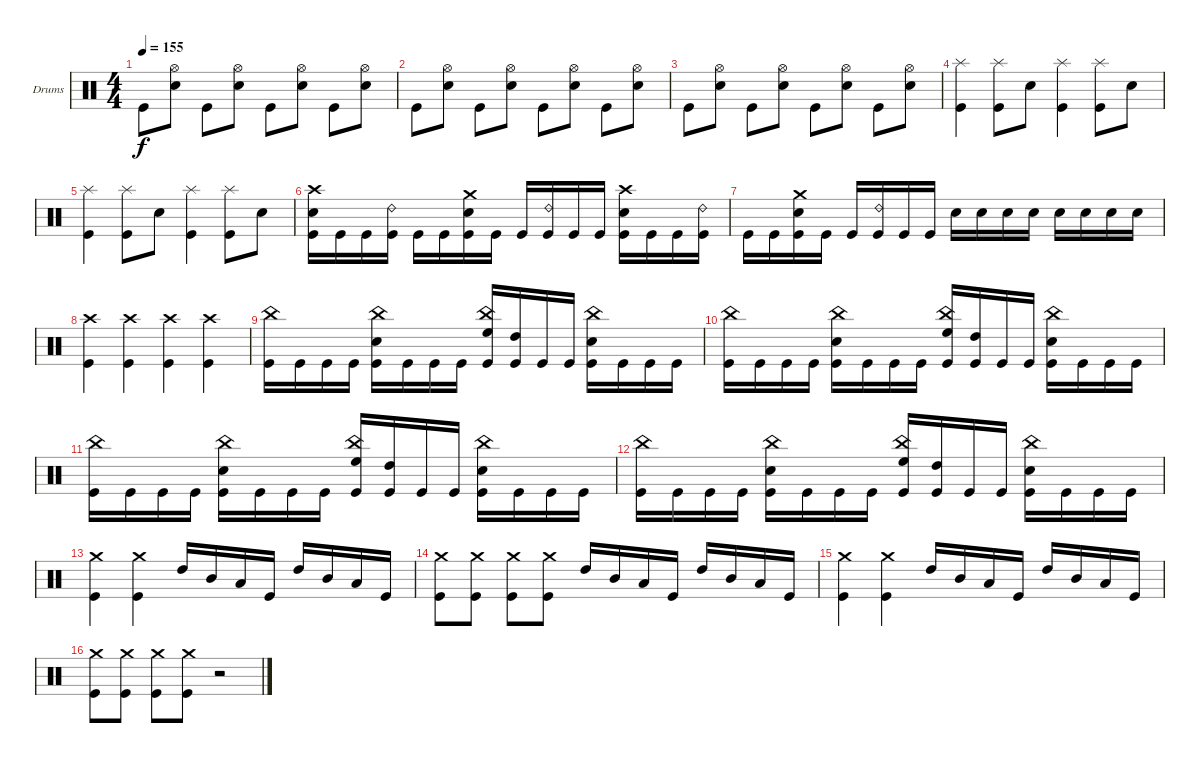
\defaultSystemsLayout 4
\bracketExtendMode groupsimilarinstruments
\firstSystemTrackNameOrientation horizontal
\otherSystemsTrackNameOrientation horizontal
\track ("Drumkit" "Drums") {instrument percussion}
\staff {score}
\articulation defaults
\ts (4 4)
\tempo 155
\clef neutral
\ks c "Kick (hit)".8{dy f}
("Snare (hit) 2" "Hi-Hat (open)").8 "Kick (hit)".8 ("Snare (hit) 2" "Hi-Hat (open)").8 "Kick (hit)".8 ("Snare (hit) 2" "Hi-Hat (open)").8 "Kick (hit)".8 ("Snare (hit) 2" "Hi-Hat (open)").8 |
"Kick (hit)".8 ("Snare (hit) 2" "Hi-Hat (open)").8 "Kick (hit)".8 ("Snare (hit) 2" "Hi-Hat (open)").8 "Kick (hit)".8 ("Snare (hit) 2" "Hi-Hat (open)").8 "Kick (hit)".8 ("Snare (hit) 2" "Hi-Hat (open)").8 |
"Kick (hit)".8 ("Snare (hit) 2" "Hi-Hat (open)").8 "Kick (hit)".8 ("Snare (hit) 2" "Hi-Hat (open)").8 "Kick (hit)".8 ("Snare (hit) 2" "Hi-Hat (open)").8 "Kick (hit)".8 ("Snare (hit) 2" "Hi-Hat (open)").8 |
("Kick (hit)" "Splash (hit)").4 ("Kick (hit)" "Splash (hit)").8 "Snare (hit) 2".8 ("Kick (hit)" "Splash (hit)").4 ("Kick (hit)" "Splash (hit)").8 "Snare (hit) 2".8 |
("Kick (hit)" "Splash (hit)").4 ("Kick (hit)" "Splash (hit)").8 "Snare (hit) 2".8 ("Kick (hit)" "Splash (hit)").4 ("Kick (hit)" "Splash (hit)").8 "Snare (hit) 2".8 |
("Kick (hit)" "Snare (hit) 2" "Crash high (hit)").16 "Kick (hit)".16 "Kick (hit)".16 ("Kick (hit)" "Ride (bell) 2").16 "Kick (hit)".16 "Kick (hit)".16 ("Kick (hit)" "Snare (hit) 2" "Crash medium (hit)").16 "Kick (hit)".16 "Kick (hit)".16 ("Kick (hit)" "Ride (bell) 2").16 "Kick (hit)".16 "Kick (hit)".16 ("Kick (hit)" "Snare (hit) 2" "Crash high (hit)").16 "Kick (hit)".16 "Kick (hit)".16 ("Kick (hit)" "Ride (bell) 2").16 |
"Kick (hit)".16 "Kick (hit)".16 ("Kick (hit)" "Snare (hit) 2" "Crash medium (hit)").16 "Kick (hit)".16 "Kick (hit)".16 ("Kick (hit)" "Ride (bell) 2").16 "Kick (hit)".16 "Kick (hit)".16 "Snare (hit) 2".16 "Snare (hit) 2".16 "Snare (hit) 2".16 "Snare (hit) 2".16 "Snare (hit) 2".16 "Snare (hit) 2".16 "Snare (hit) 2".16 "Snare (hit) 2".16 |
("Kick (hit)" "Crash high (hit)").4 ("Kick (hit)" "Crash high (hit)").4 ("Kick (hit)" "Crash high (hit)").4 ("Kick (hit)" "Crash high (hit)").4 |
("Kick (hit)" "China (hit)").16 "Kick (hit)".16 "Kick (hit)".16 "Kick (hit)".16 ("Kick (hit)" "Snare (hit) 2" "China (hit)").16 "Kick (hit)".16 "Kick (hit)".16 "Kick (hit)".16 ("Kick (hit)" "High Floor Tom (hit)" "China (hit)").16 ("Kick (hit)" "High Tom (hit)").16 "Kick (hit)".16 "Kick (hit)".16 ("Kick (hit)" "Snare (hit) 2" "China (hit)").16 "Kick (hit)".16 "Kick (hit)".16 "Kick (hit)".16 |
("Kick (hit)" "China (hit)").16 "Kick (hit)".16 "Kick (hit)".16 "Kick (hit)".16 ("Kick (hit)" "Snare (hit) 2" "China (hit)").16 "Kick (hit)".16 "Kick (hit)".16 "Kick (hit)".16 ("Kick (hit)" "High Floor Tom (hit)" "China (hit)").16 ("Kick (hit)" "High Tom (hit)").16 "Kick (hit)".16 "Kick (hit)".16 ("Kick (hit)" "Snare (hit) 2" "China (hit)").16 "Kick (hit)".16 "Kick (hit)".16 "Kick (hit)".16 |
("Kick (hit)" "China (hit)").16 "Kick (hit)".16 "Kick (hit)".16 "Kick (hit)".16 ("Kick (hit)" "Snare (hit) 2" "China (hit)").16 "Kick (hit)".16 "Kick (hit)".16 "Kick (hit)".16 ("Kick (hit)" "High Floor Tom (hit)" "China (hit)").16 ("Kick (hit)" "High Tom (hit)").16 "Kick (hit)".16 "Kick (hit)".16 ("Kick (hit)" "Snare (hit) 2" "China (hit)").16 "Kick (hit)".16 "Kick (hit)".16 "Kick (hit)".16 |
("Kick (hit)" "China (hit)").16 "Kick (hit)".16 "Kick (hit)".16 "Kick (hit)".16 ("Kick (hit)" "Snare (hit) 2" "China (hit)").16 "Kick (hit)".16 "Kick (hit)".16 "Kick (hit)".16 ("Kick (hit)" "High Floor Tom (hit)" "China (hit)").16 ("Kick (hit)" "High Tom (hit)").16 "Kick (hit)".16 "Kick (hit)".16 ("Kick (hit)" "Snare (hit) 2" "China (hit)").16 "Kick (hit)".16 "Kick (hit)".16 "Kick (hit)".16 |
("Kick (hit)" "Crash medium (hit)").4 ("Kick (hit)" "Crash medium (hit)").4 "High Tom (hit)".16 "Mid Tom (hit)".16 "Low Tom (hit)".16 "Kick (hit)".16 "High Tom (hit)".16 "Mid Tom (hit)".16 "Low Tom (hit)".16 "Kick (hit)".16 |
("Kick (hit)" "Crash medium (hit)").8 ("Kick (hit)" "Crash medium (hit)").8 ("Kick (hit)" "Crash medium (hit)").8 ("Kick (hit)" "Crash medium (hit)").8 "High Tom (hit)".16 "Mid Tom (hit)".16 "Low Tom (hit)".16 "Kick (hit)".16 "High Tom (hit)".16 "Mid Tom (hit)".16 "Low Tom (hit)".16 "Kick (hit)".16 |
("Kick (hit)" "Crash medium (hit)").4 ("Kick (hit)" "Crash medium (hit)").4 "High Tom (hit)".16 "Mid Tom (hit)".16 "Low Tom (hit)".16 "Kick (hit)".16 "High Tom (hit)".16 "Mid Tom (hit)".16 "Low Tom (hit)".16 "Kick (hit)".16 |
("Kick (hit)" "Crash medium (hit)").8 ("Kick (hit)" "Crash medium (hit)").8 ("Kick (hit)" "Crash medium (hit)").8 ("Kick (hit)" "Crash medium (hit)").8 r.2
